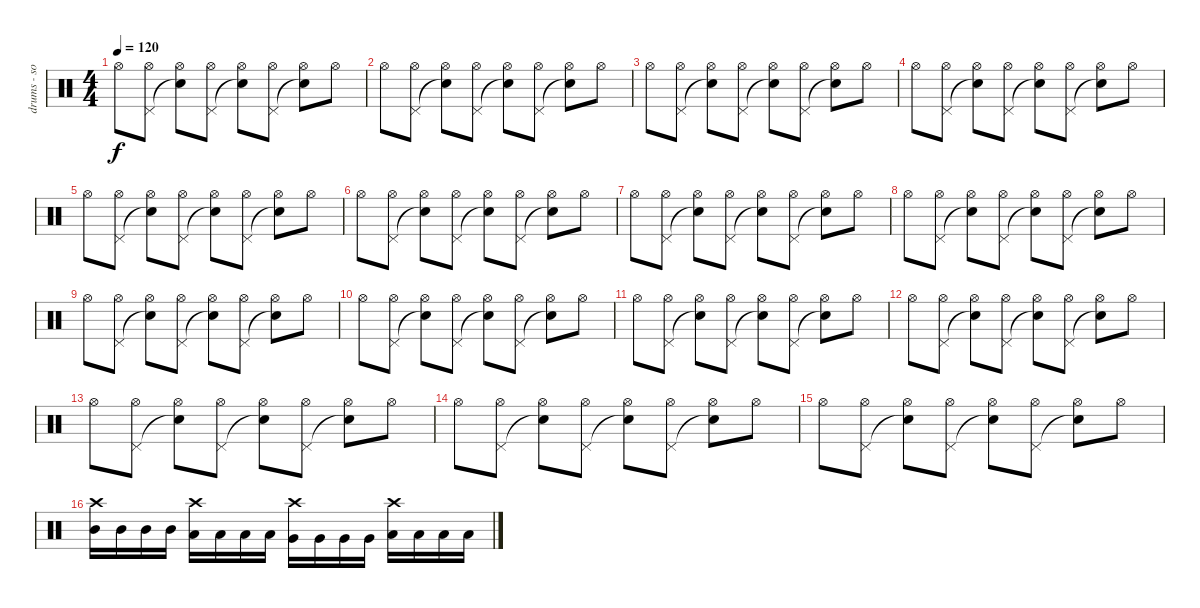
\track ("drums - someone maybe miki" "drums - so") {instrument percussion}
\staff {score}
\articulation defaults
\ts (4 4)
\tempo 120
\clef neutral
\ks c "Hi-Hat (open)".8{dy f}
("Pedal Hi-Hat (hit)" "Hi-Hat (open)").8 ("Snare (hit)"{t} "Hi-Hat (open)").8 ("Pedal Hi-Hat (hit)" "Hi-Hat (open)").8 ("Snare (hit)"{t} "Hi-Hat (open)").8 ("Pedal Hi-Hat (hit)" "Hi-Hat (open)").8 ("Snare (hit)"{t} "Hi-Hat (open)").8 "Hi-Hat (open)".8 |
"Hi-Hat (open)".8 ("Pedal Hi-Hat (hit)" "Hi-Hat (open)").8 ("Snare (hit)"{t} "Hi-Hat (open)").8 ("Pedal Hi-Hat (hit)" "Hi-Hat (open)").8 ("Snare (hit)"{t} "Hi-Hat (open)").8 ("Pedal Hi-Hat (hit)" "Hi-Hat (open)").8 ("Snare (hit)"{t} "Hi-Hat (open)").8 "Hi-Hat (open)".8 |
"Hi-Hat (open)".8 ("Pedal Hi-Hat (hit)" "Hi-Hat (open)").8 ("Snare (hit)"{t} "Hi-Hat (open)").8 ("Pedal Hi-Hat (hit)" "Hi-Hat (open)").8 ("Snare (hit)"{t} "Hi-Hat (open)").8 ("Pedal Hi-Hat (hit)" "Hi-Hat (open)").8 ("Snare (hit)"{t} "Hi-Hat (open)").8 "Hi-Hat (open)".8 |
"Hi-Hat (open)".8 ("Pedal Hi-Hat (hit)" "Hi-Hat (open)").8 ("Snare (hit)"{t} "Hi-Hat (open)").8 ("Pedal Hi-Hat (hit)" "Hi-Hat (open)").8 ("Snare (hit)"{t} "Hi-Hat (open)").8 ("Pedal Hi-Hat (hit)" "Hi-Hat (open)").8 ("Snare (hit)"{t} "Hi-Hat (open)").8 "Hi-Hat (open)".8 |
"Hi-Hat (open)".8 ("Pedal Hi-Hat (hit)" "Hi-Hat (open)").8 ("Snare (hit)"{t} "Hi-Hat (open)").8 ("Pedal Hi-Hat (hit)" "Hi-Hat (open)").8 ("Snare (hit)"{t} "Hi-Hat (open)").8 ("Pedal Hi-Hat (hit)" "Hi-Hat (open)").8 ("Snare (hit)"{t} "Hi-Hat (open)").8 "Hi-Hat (open)".8 |
"Hi-Hat (open)".8 ("Pedal Hi-Hat (hit)" "Hi-Hat (open)").8 ("Snare (hit)"{t} "Hi-Hat (open)").8 ("Pedal Hi-Hat (hit)" "Hi-Hat (open)").8 ("Snare (hit)"{t} "Hi-Hat (open)").8 ("Pedal Hi-Hat (hit)" "Hi-Hat (open)").8 ("Snare (hit)"{t} "Hi-Hat (open)").8 "Hi-Hat (open)".8 |
"Hi-Hat (open)".8 ("Pedal Hi-Hat (hit)" "Hi-Hat (open)").8 ("Snare (hit)"{t} "Hi-Hat (open)").8 ("Pedal Hi-Hat (hit)" "Hi-Hat (open)").8 ("Snare (hit)"{t} "Hi-Hat (open)").8 ("Pedal Hi-Hat (hit)" "Hi-Hat (open)").8 ("Snare (hit)"{t} "Hi-Hat (open)").8 "Hi-Hat (open)".8 |
"Hi-Hat (open)".8 ("Pedal Hi-Hat (hit)" "Hi-Hat (open)").8 ("Snare (hit)"{t} "Hi-Hat (open)").8 ("Pedal Hi-Hat (hit)" "Hi-Hat (open)").8 ("Snare (hit)"{t} "Hi-Hat (open)").8 ("Pedal Hi-Hat (hit)" "Hi-Hat (open)").8 ("Snare (hit)"{t} "Hi-Hat (open)").8 "Hi-Hat (open)".8 |
"Hi-Hat (open)".8 ("Pedal Hi-Hat (hit)" "Hi-Hat (open)").8 ("Snare (hit)"{t} "Hi-Hat (open)").8 ("Pedal Hi-Hat (hit)" "Hi-Hat (open)").8 ("Snare (hit)"{t} "Hi-Hat (open)").8 ("Pedal Hi-Hat (hit)" "Hi-Hat (open)").8 ("Snare (hit)"{t} "Hi-Hat (open)").8 "Hi-Hat (open)".8 |
"Hi-Hat (open)".8 ("Pedal Hi-Hat (hit)" "Hi-Hat (open)").8 ("Snare (hit)"{t} "Hi-Hat (open)").8 ("Pedal Hi-Hat (hit)" "Hi-Hat (open)").8 ("Snare (hit)"{t} "Hi-Hat (open)").8 ("Pedal Hi-Hat (hit)" "Hi-Hat (open)").8 ("Snare (hit)"{t} "Hi-Hat (open)").8 "Hi-Hat (open)".8 |
"Hi-Hat (open)".8 ("Pedal Hi-Hat (hit)" "Hi-Hat (open)").8 ("Snare (hit)"{t} "Hi-Hat (open)").8 ("Pedal Hi-Hat (hit)" "Hi-Hat (open)").8 ("Snare (hit)"{t} "Hi-Hat (open)").8 ("Pedal Hi-Hat (hit)" "Hi-Hat (open)").8 ("Snare (hit)"{t} "Hi-Hat (open)").8 "Hi-Hat (open)".8 |
"Hi-Hat (open)".8 ("Pedal Hi-Hat (hit)" "Hi-Hat (open)").8 ("Snare (hit)"{t} "Hi-Hat (open)").8 ("Pedal Hi-Hat (hit)" "Hi-Hat (open)").8 ("Snare (hit)"{t} "Hi-Hat (open)").8 ("Pedal Hi-Hat (hit)" "Hi-Hat (open)").8 ("Snare (hit)"{t} "Hi-Hat (open)").8 "Hi-Hat (open)".8 |
"Hi-Hat (open)".8 ("Pedal Hi-Hat (hit)" "Hi-Hat (open)").8 ("Snare (hit)"{t} "Hi-Hat (open)").8 ("Pedal Hi-Hat (hit)" "Hi-Hat (open)").8 ("Snare (hit)"{t} "Hi-Hat (open)").8 ("Pedal Hi-Hat (hit)" "Hi-Hat (open)").8 ("Snare (hit)"{t} "Hi-Hat (open)").8 "Hi-Hat (open)".8 |
"Hi-Hat (open)".8 ("Pedal Hi-Hat (hit)" "Hi-Hat (open)").8 ("Snare (hit)"{t} "Hi-Hat (open)").8 ("Pedal Hi-Hat (hit)" "Hi-Hat (open)").8 ("Snare (hit)"{t} "Hi-Hat (open)").8 ("Pedal Hi-Hat (hit)" "Hi-Hat (open)").8 ("Snare (hit)"{t} "Hi-Hat (open)").8 "Hi-Hat (open)".8 |
"Hi-Hat (open)".8 ("Pedal Hi-Hat (hit)" "Hi-Hat (open)").8 ("Snare (hit)"{t} "Hi-Hat (open)").8 ("Pedal Hi-Hat (hit)" "Hi-Hat (open)").8 ("Snare (hit)"{t} "Hi-Hat (open)").8 ("Pedal Hi-Hat (hit)" "Hi-Hat (open)").8 ("Snare (hit)"{t} "Hi-Hat (open)").8 "Hi-Hat (open)".8 |
("Mid Tom (hit)" "Crash high (hit)").16 "Mid Tom (hit)".16 "Mid Tom (hit)".16 "Mid Tom (hit)".16 ("Low Tom (hit)" "Crash high (hit)").16 "Low Tom (hit)".16 "Low Tom (hit)".16 "Low Tom (hit)".16 ("Very Low Tom (hit)" "Crash high (hit)").16 "Very Low Tom (hit)".16 "Very Low Tom (hit)".16 "Very Low Tom (hit)".16 ("Low Floor Tom (hit)" "Crash high (hit)").16 "Low Floor Tom (hit)".16 "Low Floor Tom (hit)".16 "Low Floor Tom (hit)".16
